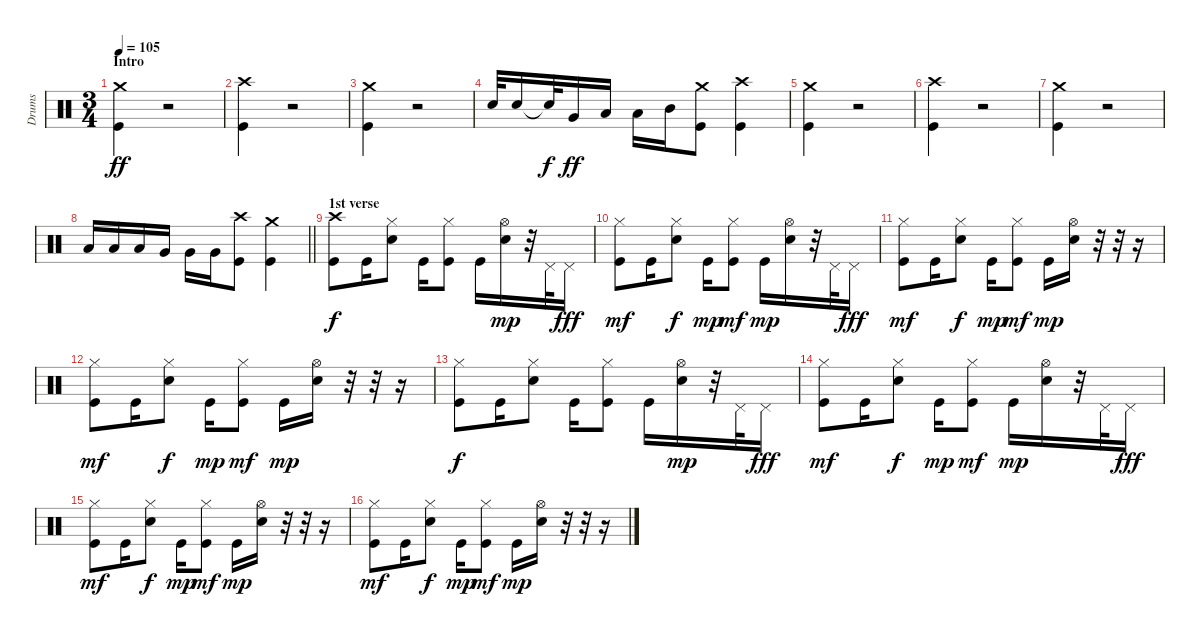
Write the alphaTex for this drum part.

\track ("Drums" "Drums") {instrument percussion}
\staff {score}
\articulation defaults
\ts (3 4)
\section ("" "Intro")
\tempo 105
\clef neutral
\ks c
("Crash medium (hit)" "Kick (hit)").4{dy ff} r.2 |
("Crash high (hit)" "Kick (hit)").4 r.2 |
("Crash medium (hit)" "Kick (hit)").4 r.2 |
"Snare (hit) 2".32 "Snare (hit) 2".16 "Snare (hit)"{t}.32{dy f} "Very Low Tom (hit)".16{dy ff} "Low Tom (hit)".16 "Low Tom (hit)".16 "Mid Tom (hit)".16 ("Crash medium (hit)" "Kick (hit)").8 ("Crash high (hit)" "Kick (hit)").4 |
("Crash medium (hit)" "Kick (hit)").4 r.2 |
("Crash high (hit)" "Kick (hit)").4 r.2 |
("Crash medium (hit)" "Kick (hit)").4 r.2 |
\barLineRight lightlight "Low Tom (hit)".16 "Low Tom (hit)".16 "Low Tom (hit)".16 "Very Low Tom (hit)".16 "Very Low Tom (hit)".16 "Very Low Tom (hit)".16
("Crash high (hit)" "Kick (hit)").8 ("Crash medium (hit)" "Kick (hit)").4 |
\section ("" "1st verse")
("Crash high (hit)" "Kick (hit)").8{dy f} "Kick (hit)".16 ("Hi-Hat (closed)" "Snare (hit) 2").8 "Kick (hit)".16 ("Hi-Hat (closed)" "Kick (hit)").8 "Kick (hit)".16 ("Hi-Hat (open)" "Snare (hit) 2").16{dy mp} r.32 "Pedal Hi-Hat (hit)".32 "Pedal Hi-Hat (hit)".16{dy fff} |
("Hi-Hat (closed)" "Kick (hit)").8{dy mf} "Kick (hit)".16 ("Hi-Hat (closed)" "Snare (hit) 2").8{dy f} "Kick (hit)".16{dy mp} ("Hi-Hat (closed)" "Kick (hit)").8{dy mf} "Kick (hit)".16{dy mp} ("Hi-Hat (open)" "Snare (hit) 2").16 r.32 "Pedal Hi-Hat (hit)".32 "Pedal Hi-Hat (hit)".16{dy fff} |
("Hi-Hat (closed)" "Kick (hit)").8{dy mf} "Kick (hit)".16 ("Hi-Hat (closed)" "Snare (hit) 2").8{dy f} "Kick (hit)".16{dy mp} ("Hi-Hat (closed)" "Kick (hit)").8{dy mf} "Kick (hit)".16{dy mp} ("Hi-Hat (open)" "Snare (hit) 2").16 r.32 r.32 r.16 |
("Hi-Hat (closed)" "Kick (hit)").8{dy mf} "Kick (hit)".16 ("Hi-Hat (closed)" "Snare (hit) 2").8{dy f} "Kick (hit)".16{dy mp} ("Hi-Hat (closed)" "Kick (hit)").8{dy mf} "Kick (hit)".16{dy mp} ("Hi-Hat (open)" "Snare (hit) 2").16 r.32 r.32 r.16 |
("Hi-Hat (closed)" "Kick (hit)").8{dy f} "Kick (hit)".16 ("Hi-Hat (closed)" "Snare (hit) 2").8 "Kick (hit)".16 ("Hi-Hat (closed)" "Kick (hit)").8 "Kick (hit)".16 ("Hi-Hat (open)" "Snare (hit) 2").16{dy mp} r.32 "Pedal Hi-Hat (hit)".32 "Pedal Hi-Hat (hit)".16{dy fff} |
("Hi-Hat (closed)" "Kick (hit)").8{dy mf} "Kick (hit)".16 ("Hi-Hat (closed)" "Snare (hit) 2").8{dy f} "Kick (hit)".16{dy mp} ("Hi-Hat (closed)" "Kick (hit)").8{dy mf} "Kick (hit)".16{dy mp} ("Hi-Hat (open)" "Snare (hit) 2").16 r.32 "Pedal Hi-Hat (hit)".32 "Pedal Hi-Hat (hit)".16{dy fff} |
("Hi-Hat (closed)" "Kick (hit)").8{dy mf} "Kick (hit)".16 ("Hi-Hat (closed)" "Snare (hit) 2").8{dy f} "Kick (hit)".16{dy mp} ("Hi-Hat (closed)" "Kick (hit)").8{dy mf} "Kick (hit)".16{dy mp} ("Hi-Hat (open)" "Snare (hit) 2").16 r.32 r.32 r.16 |
("Hi-Hat (closed)" "Kick (hit)").8{dy mf} "Kick (hit)".16 ("Hi-Hat (closed)" "Snare (hit) 2").8{dy f} "Kick (hit)".16{dy mp} ("Hi-Hat (closed)" "Kick (hit)").8{dy mf} "Kick (hit)".16{dy mp} ("Hi-Hat (open)" "Snare (hit) 2").16 r.32 r.32 r.16
